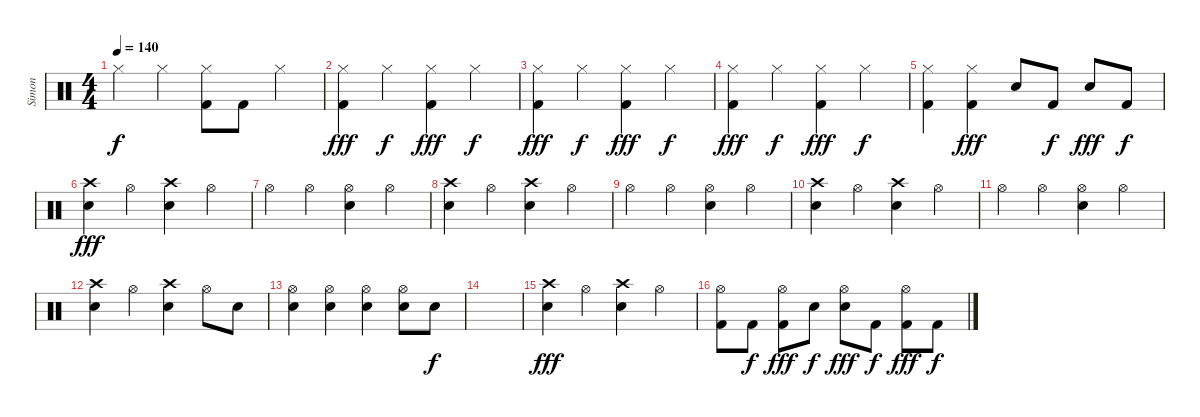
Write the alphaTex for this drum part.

\track ("Simon" "Simon") {instrument percussion}
\staff {score}
\articulation defaults
\ts (4 4)
\tempo 140
\clef neutral
\ks c "Hi-Hat (closed)".4{dy f} "Hi-Hat (closed)".4
("Kick (hit) 2" "Hi-Hat (closed)").8 "Kick (hit) 2".8 "Hi-Hat (closed)".4 |
("Kick (hit) 2" "Hi-Hat (closed)").4{dy fff} "Hi-Hat (closed)".4{dy f} ("Kick (hit) 2" "Hi-Hat (closed)").4{dy fff} "Hi-Hat (closed)".4{dy f} |
("Kick (hit) 2" "Hi-Hat (closed)").4{dy fff} "Hi-Hat (closed)".4{dy f} ("Kick (hit) 2" "Hi-Hat (closed)").4{dy fff} "Hi-Hat (closed)".4{dy f} |
("Kick (hit) 2" "Hi-Hat (closed)").4{dy fff} "Hi-Hat (closed)".4{dy f} ("Kick (hit) 2" "Hi-Hat (closed)").4{dy fff} "Hi-Hat (closed)".4{dy f} |
("Kick (hit) 2" "Hi-Hat (closed)").4 ("Kick (hit) 2" "Hi-Hat (closed)").4{dy fff} "Electric Snare (hit)".8 "Kick (hit) 2".8{dy f} "Electric Snare (hit)".8{dy fff} "Kick (hit) 2".8{dy f} |
("Crash high (hit)" "Electric Snare (hit)").4{dy fff} "Hi-Hat (open)".4 ("Crash high (hit)" "Electric Snare (hit)").4 "Hi-Hat (open)".4 |
"Hi-Hat (open)".4 "Hi-Hat (open)".4 ("Electric Snare (hit)" "Hi-Hat (open)").4 "Hi-Hat (open)".4 |
("Crash high (hit)" "Electric Snare (hit)").4 "Hi-Hat (open)".4 ("Crash high (hit)" "Electric Snare (hit)").4 "Hi-Hat (open)".4 |
"Hi-Hat (open)".4 "Hi-Hat (open)".4 ("Electric Snare (hit)" "Hi-Hat (open)").4 "Hi-Hat (open)".4 |
("Crash high (hit)" "Electric Snare (hit)").4 "Hi-Hat (open)".4 ("Crash high (hit)" "Electric Snare (hit)").4 "Hi-Hat (open)".4 |
"Hi-Hat (open)".4 "Hi-Hat (open)".4 ("Electric Snare (hit)" "Hi-Hat (open)").4 "Hi-Hat (open)".4 |
("Crash high (hit)" "Electric Snare (hit)").4 "Hi-Hat (open)".4 ("Crash high (hit)" "Electric Snare (hit)").4 "Hi-Hat (open)".8 "Electric Snare (hit)".8 |
("Electric Snare (hit)" "Hi-Hat (open)").4 ("Electric Snare (hit)" "Hi-Hat (open)").4 ("Electric Snare (hit)" "Hi-Hat (open)").4 ("Electric Snare (hit)" "Hi-Hat (open)").8 "Electric Snare (hit)".8{dy f} |
|
("Crash high (hit)" "Electric Snare (hit)").4{dy fff} "Hi-Hat (open)".4 ("Crash high (hit)" "Electric Snare (hit)").4 "Hi-Hat (open)".4 |
("Kick (hit) 2" "Hi-Hat (open)").8 "Kick (hit) 2".8{dy f} ("Kick (hit) 2" "Hi-Hat (open)").8{dy fff} "Electric Snare (hit)".8{dy f} ("Electric Snare (hit)" "Hi-Hat (open)").8{dy fff} "Kick (hit) 2".8{dy f} ("Kick (hit) 2" "Hi-Hat (open)").8{dy fff} "Kick (hit) 2".8{dy f}
